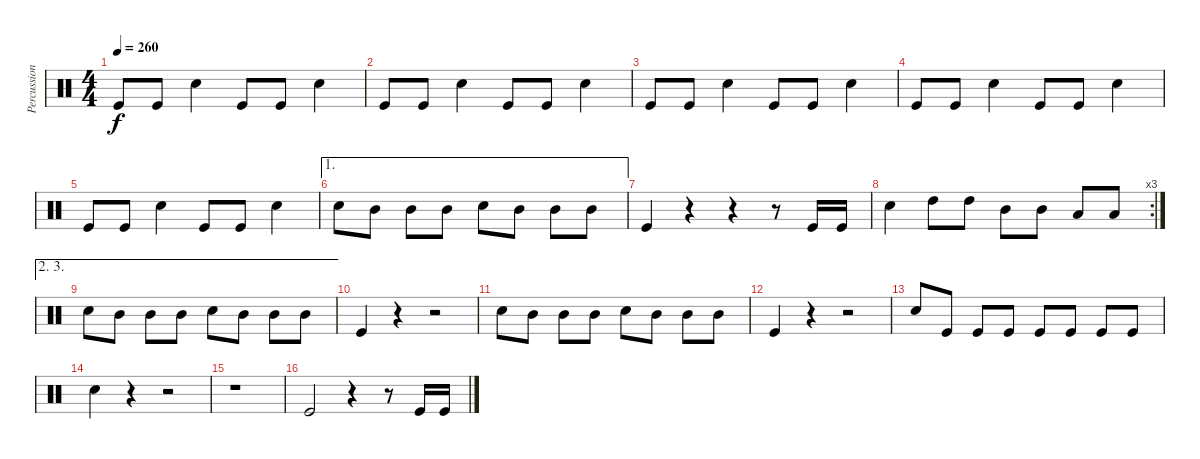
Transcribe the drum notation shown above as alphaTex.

\track ("Percussion" "Percussion") {instrument percussion}
\staff {score}
\articulation defaults
\ts (4 4)
\tempo 260
\clef neutral
\ks c "Kick (hit)".8{dy f} "Kick (hit)".8 "Electric Snare (hit)".4 "Kick (hit)".8 "Kick (hit)".8 "Electric Snare (hit)".4
|
"Kick (hit)".8 "Kick (hit)".8 "Electric Snare (hit)".4 "Kick (hit)".8 "Kick (hit)".8 "Electric Snare (hit)".4 |
"Kick (hit)".8 "Kick (hit)".8 "Electric Snare (hit)".4 "Kick (hit)".8 "Kick (hit)".8 "Electric Snare (hit)".4 |
"Kick (hit)".8 "Kick (hit)".8 "Electric Snare (hit)".4 "Kick (hit)".8 "Kick (hit)".8 "Electric Snare (hit)".4 |
"Kick (hit)".8 "Kick (hit)".8 "Electric Snare (hit)".4 "Kick (hit)".8 "Kick (hit)".8 "Electric Snare (hit)".4 |
\ae 1 "Snare (hit) 2".8 "Mid Tom (hit)".8 "Mid Tom (hit)".8 "Mid Tom (hit)".8 "Snare (hit) 2".8 "Mid Tom (hit)".8 "Mid Tom (hit)".8 "Mid Tom (hit)".8
|
"Kick (hit)".4 r.4 r.4 r.8 "Kick (hit)".16 "Kick (hit)".16 |
\rc 3 "Snare (hit) 2".4 "High Tom (hit)".8 "High Tom (hit)".8 "Mid Tom (hit)".8 "Mid Tom (hit)".8 "Low Tom (hit)".8 "Low Tom (hit)".8
|
\ae (2 3)
"Snare (hit) 2".8 "Mid Tom (hit)".8 "Mid Tom (hit)".8 "Mid Tom (hit)".8 "Snare (hit) 2".8 "Mid Tom (hit)".8 "Mid Tom (hit)".8 "Mid Tom (hit)".8 |
"Kick (hit)".4 r.4 r.2 |
"Snare (hit) 2".8 "Mid Tom (hit)".8 "Mid Tom (hit)".8 "Mid Tom (hit)".8 "Snare (hit) 2".8 "Mid Tom (hit)".8 "Mid Tom (hit)".8 "Mid Tom (hit)".8 |
"Kick (hit)".4 r.4 r.2 |
"Snare (hit) 2".8 "Kick (hit)".8 "Kick (hit)".8 "Kick (hit)".8 "Kick (hit)".8 "Kick (hit)".8 "Kick (hit)".8 "Kick (hit)".8 |
"Snare (hit) 2".4 r.4 r.2 |
r.1 |
"Kick (hit)".2 r.4 r.8 "Kick (hit)".16 "Kick (hit)".16
